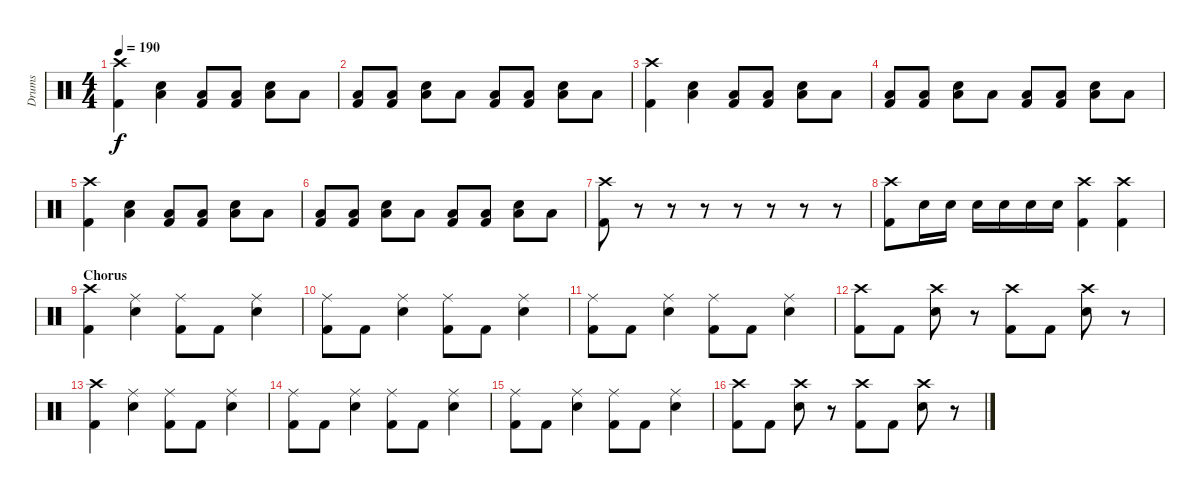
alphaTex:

\track ("Drums" "Drums") {instrument percussion}
\staff {score}
\articulation defaults
\ts (4 4)
\tempo 190
\clef neutral
\ks c
("Crash high (hit)" "Kick (hit) 2").4{dy f} ("Snare (hit) 2" "Low Tom (hit)").4 ("Low Tom (hit)" "Kick (hit) 2").8 ("Low Tom (hit)" "Kick (hit) 2").8 ("Snare (hit) 2" "Low Tom (hit)").8 "Low Tom (hit)".8 |
("Low Tom (hit)" "Kick (hit) 2").8 ("Low Tom (hit)" "Kick (hit) 2").8 ("Snare (hit) 2" "Low Tom (hit)").8 "Low Tom (hit)".8 ("Low Tom (hit)" "Kick (hit) 2").8 ("Low Tom (hit)" "Kick (hit) 2").8 ("Snare (hit) 2" "Low Tom (hit)").8 "Low Tom (hit)".8 |
("Crash high (hit)" "Kick (hit) 2").4 ("Snare (hit) 2" "Low Tom (hit)").4 ("Low Tom (hit)" "Kick (hit) 2").8 ("Low Tom (hit)" "Kick (hit) 2").8 ("Snare (hit) 2" "Low Tom (hit)").8 "Low Tom (hit)".8 |
("Low Tom (hit)" "Kick (hit) 2").8 ("Low Tom (hit)" "Kick (hit) 2").8 ("Snare (hit) 2" "Low Tom (hit)").8 "Low Tom (hit)".8 ("Low Tom (hit)" "Kick (hit) 2").8 ("Low Tom (hit)" "Kick (hit) 2").8 ("Snare (hit) 2" "Low Tom (hit)").8 "Low Tom (hit)".8 |
("Crash high (hit)" "Kick (hit) 2").4 ("Snare (hit) 2" "Low Tom (hit)").4 ("Low Tom (hit)" "Kick (hit) 2").8 ("Low Tom (hit)" "Kick (hit) 2").8 ("Snare (hit) 2" "Low Tom (hit)").8 "Low Tom (hit)".8 |
("Low Tom (hit)" "Kick (hit) 2").8 ("Low Tom (hit)" "Kick (hit) 2").8 ("Snare (hit) 2" "Low Tom (hit)").8 "Low Tom (hit)".8 ("Low Tom (hit)" "Kick (hit) 2").8 ("Low Tom (hit)" "Kick (hit) 2").8 ("Snare (hit) 2" "Low Tom (hit)").8 "Low Tom (hit)".8 |
("Crash high (hit)" "Kick (hit) 2").8 r.8 r.8 r.8 r.8 r.8 r.8 r.8 |
("Crash high (hit)" "Kick (hit) 2").8 "Snare (hit) 2".16 "Snare (hit) 2".16 "Snare (hit) 2".16 "Snare (hit) 2".16 "Snare (hit) 2".16 "Snare (hit) 2".16 ("Crash high (hit)" "Kick (hit) 2").4 ("Crash high (hit)" "Kick (hit) 2").4 |
\section ("" "Chorus")
("Crash high (hit)" "Kick (hit) 2").4 ("Ride (middle)" "Snare (hit) 2").4 ("Ride (middle)" "Kick (hit) 2").8 "Kick (hit) 2".8 ("Ride (middle)" "Snare (hit) 2").4 |
("Ride (middle)" "Kick (hit) 2").8 "Kick (hit) 2".8 ("Ride (middle)" "Snare (hit) 2").4 ("Ride (middle)" "Kick (hit) 2").8 "Kick (hit) 2".8 ("Ride (middle)" "Snare (hit) 2").4 |
("Ride (middle)" "Kick (hit) 2").8 "Kick (hit) 2".8 ("Ride (middle)" "Snare (hit) 2").4 ("Ride (middle)" "Kick (hit) 2").8 "Kick (hit) 2".8 ("Ride (middle)" "Snare (hit) 2").4 |
("Crash high (hit)" "Kick (hit) 2").8 "Kick (hit) 2".8 ("Crash high (hit)" "Snare (hit) 2").8 r.8 ("Crash high (hit)" "Kick (hit) 2").8 "Kick (hit) 2".8 ("Crash high (hit)" "Snare (hit) 2").8 r.8 |
("Crash high (hit)" "Kick (hit) 2").4 ("Ride (middle)" "Snare (hit) 2").4 ("Ride (middle)" "Kick (hit) 2").8 "Kick (hit) 2".8 ("Ride (middle)" "Snare (hit) 2").4 |
("Ride (middle)" "Kick (hit) 2").8 "Kick (hit) 2".8 ("Ride (middle)" "Snare (hit) 2").4 ("Ride (middle)" "Kick (hit) 2").8 "Kick (hit) 2".8 ("Ride (middle)" "Snare (hit) 2").4 |
("Ride (middle)" "Kick (hit) 2").8 "Kick (hit) 2".8 ("Ride (middle)" "Snare (hit) 2").4 ("Ride (middle)" "Kick (hit) 2").8 "Kick (hit) 2".8 ("Ride (middle)" "Snare (hit) 2").4 |
("Crash high (hit)" "Kick (hit) 2").8 "Kick (hit) 2".8 ("Crash high (hit)" "Snare (hit) 2").8 r.8 ("Crash high (hit)" "Kick (hit) 2").8 "Kick (hit) 2".8 ("Crash high (hit)" "Snare (hit) 2").8 r.8
